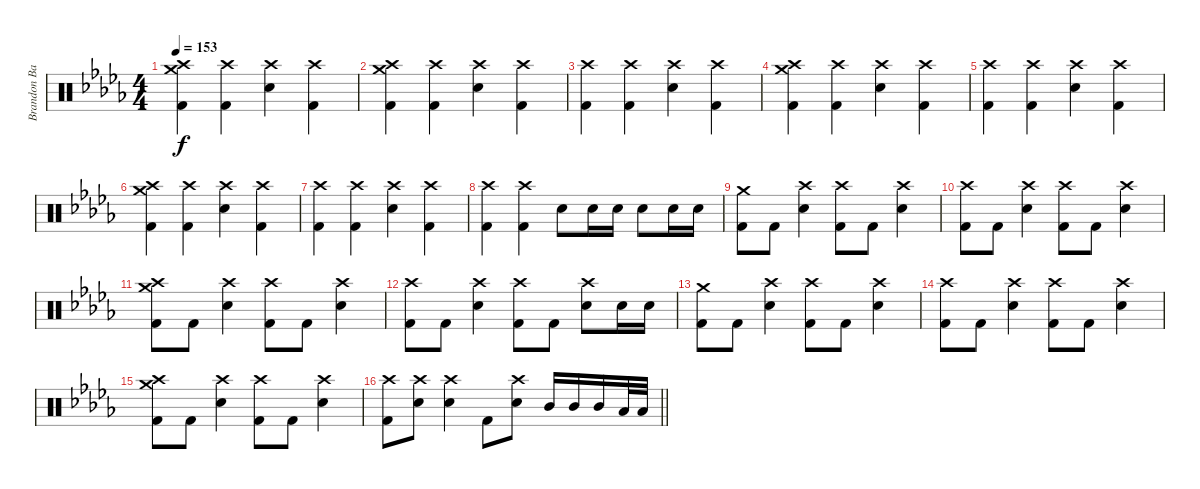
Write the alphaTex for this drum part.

\track ("Brandon Barnes" "Brandon Ba") {instrument percussion}
\staff {score}
\articulation defaults
\ts (4 4)
\tempo 153
\clef neutral
\ks db
("Crash high (hit)" "Crash medium (hit)" "Kick (hit) 2").4{dy f} ("Crash high (hit)" "Kick (hit) 2").4 ("Crash high (hit)" "Snare (hit) 2").4 ("Crash high (hit)" "Kick (hit) 2").4 |
("Crash high (hit)" "Crash medium (hit)" "Kick (hit) 2").4 ("Crash high (hit)" "Kick (hit) 2").4 ("Crash high (hit)" "Snare (hit) 2").4 ("Crash high (hit)" "Kick (hit) 2").4 |
("Crash high (hit)" "Kick (hit) 2").4 ("Crash high (hit)" "Kick (hit) 2").4 ("Crash high (hit)" "Snare (hit) 2").4 ("Crash high (hit)" "Kick (hit) 2").4 |
("Crash high (hit)" "Crash medium (hit)" "Kick (hit) 2").4 ("Crash high (hit)" "Kick (hit) 2").4 ("Crash high (hit)" "Snare (hit) 2").4 ("Crash high (hit)" "Kick (hit) 2").4 |
("Crash high (hit)" "Kick (hit) 2").4 ("Crash high (hit)" "Kick (hit) 2").4 ("Crash high (hit)" "Snare (hit) 2").4 ("Crash high (hit)" "Kick (hit) 2").4 |
("Crash high (hit)" "Crash medium (hit)" "Kick (hit) 2").4 ("Crash high (hit)" "Kick (hit) 2").4 ("Crash high (hit)" "Snare (hit) 2").4 ("Crash high (hit)" "Kick (hit) 2").4 |
("Crash high (hit)" "Kick (hit) 2").4 ("Crash high (hit)" "Kick (hit) 2").4 ("Crash high (hit)" "Snare (hit) 2").4 ("Crash high (hit)" "Kick (hit) 2").4 |
("Crash high (hit)" "Kick (hit) 2").4 ("Crash high (hit)" "Kick (hit) 2").4 "Snare (hit) 2".8 "Snare (hit) 2".16 "Snare (hit) 2".16 "Snare (hit) 2".8 "Snare (hit) 2".16 "Snare (hit) 2".16 |
("Crash medium (hit)" "Kick (hit) 2").8 "Kick (hit) 2".8 ("Crash high (hit)" "Snare (hit) 2").4 ("Crash high (hit)" "Kick (hit) 2").8 "Kick (hit) 2".8 ("Crash high (hit)" "Snare (hit) 2").4 |
("Crash high (hit)" "Kick (hit) 2").8 "Kick (hit) 2".8 ("Crash high (hit)" "Snare (hit) 2").4 ("Crash high (hit)" "Kick (hit) 2").8 "Kick (hit) 2".8 ("Crash high (hit)" "Snare (hit) 2").4 |
("Crash high (hit)" "Crash medium (hit)" "Kick (hit) 2").8 "Kick (hit) 2".8 ("Crash high (hit)" "Snare (hit) 2").4 ("Crash high (hit)" "Kick (hit) 2").8 "Kick (hit) 2".8 ("Crash high (hit)" "Snare (hit) 2").4 |
("Crash high (hit)" "Kick (hit) 2").8 "Kick (hit) 2".8 ("Crash high (hit)" "Snare (hit) 2").4 ("Crash high (hit)" "Kick (hit) 2").8 "Kick (hit) 2".8 ("Crash high (hit)" "Snare (hit) 2").8 "Snare (hit) 2".16 "Snare (hit) 2".16 |
("Crash medium (hit)" "Kick (hit) 2").8 "Kick (hit) 2".8 ("Crash high (hit)" "Snare (hit) 2").4 ("Crash high (hit)" "Kick (hit) 2").8 "Kick (hit) 2".8 ("Crash high (hit)" "Snare (hit) 2").4 |
("Crash high (hit)" "Kick (hit) 2").8 "Kick (hit) 2".8 ("Crash high (hit)" "Snare (hit) 2").4 ("Crash high (hit)" "Kick (hit) 2").8 "Kick (hit) 2".8 ("Crash high (hit)" "Snare (hit) 2").4 |
("Crash high (hit)" "Crash medium (hit)" "Kick (hit) 2").8 "Kick (hit) 2".8 ("Crash high (hit)" "Snare (hit) 2").4 ("Crash high (hit)" "Kick (hit) 2").8 "Kick (hit) 2".8 ("Crash high (hit)" "Snare (hit) 2").4 |
\barLineRight lightlight
("Crash high (hit)" "Kick (hit) 2").8 ("Crash high (hit)" "Snare (hit) 2").8 ("Crash high (hit)" "Snare (hit) 2").4 "Kick (hit) 2".8 ("Crash high (hit)" "Snare (hit) 2").8 "Mid Tom (hit)".16 "Mid Tom (hit)".16 "Mid Tom (hit)".16 "Low Floor Tom (hit)".32 "Low Floor Tom (hit)".32
